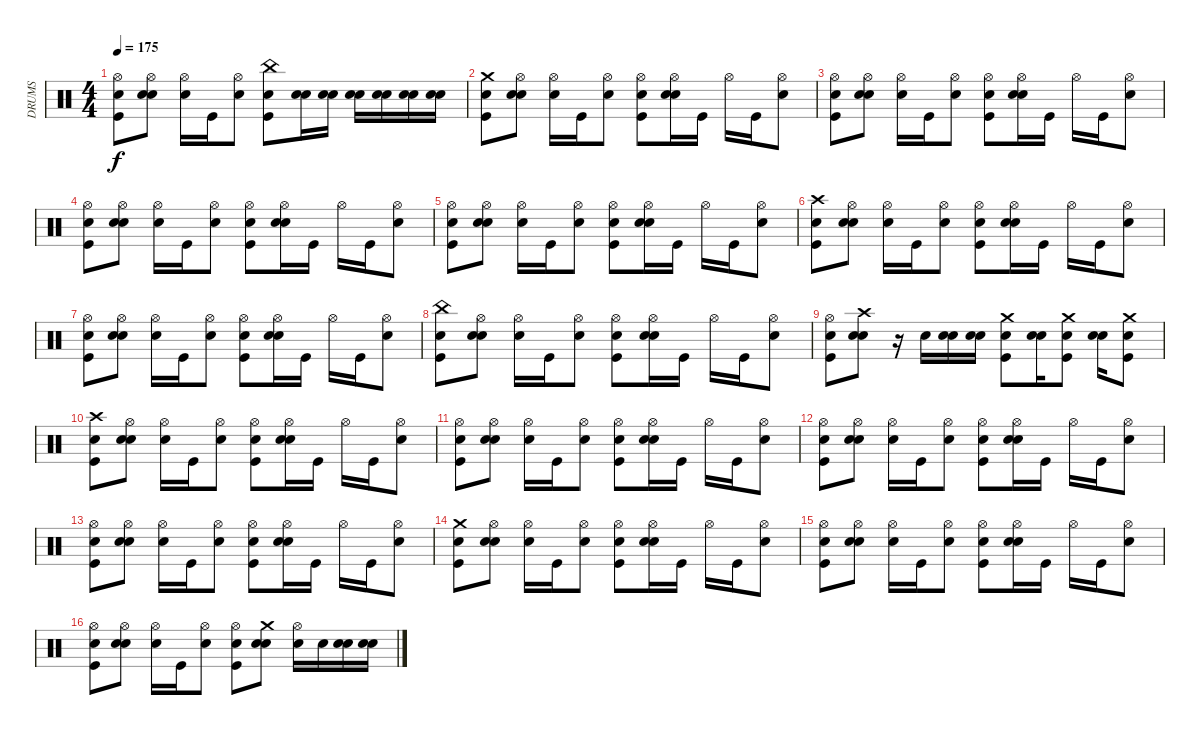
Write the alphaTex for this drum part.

\track ("DRUMS" "DRUMS") {instrument percussion}
\staff {score}
\articulation defaults
\ts (4 4)
\tempo 175
\clef neutral
\ks c
("Snare (hit)" "Kick (hit)" "Hi-Hat (open)").8{dy f} ("Snare (hit)" "Snare (hit) 2" "Hi-Hat (open)").8 ("Snare (hit)" "Hi-Hat (open)").16 "Kick (hit)".16 ("Snare (hit) 2" "Hi-Hat (open)").8 ("Snare (hit)" "Kick (hit)" "China (hit)").8 ("Snare (hit)" "Snare (hit) 2").16 ("Snare (hit)" "Snare (hit) 2").16 ("Snare (hit)" "Snare (hit) 2").16 ("Snare (hit)" "Snare (hit) 2").16 ("Snare (hit)" "Snare (hit) 2").16 ("Snare (hit)" "Snare (hit) 2").16 |
("Snare (hit)" "Crash medium (hit)" "Kick (hit)").8 ("Snare (hit)" "Hi-Hat (open)" "Snare (hit) 2").8 ("Snare (hit)" "Hi-Hat (open)").16 "Kick (hit)".16 ("Hi-Hat (open)" "Snare (hit) 2").8 ("Snare (hit)" "Hi-Hat (open)" "Kick (hit)").8 ("Snare (hit)" "Hi-Hat (open)" "Snare (hit) 2").16 "Kick (hit)".16 "Hi-Hat (open)".16 "Kick (hit)".16 ("Hi-Hat (open)" "Snare (hit) 2").8 |
("Snare (hit)" "Kick (hit)" "Hi-Hat (open)").8 ("Snare (hit)" "Snare (hit) 2" "Hi-Hat (open)").8 ("Snare (hit)" "Hi-Hat (open)").16 "Kick (hit)".16 ("Snare (hit) 2" "Hi-Hat (open)").8 ("Snare (hit)" "Kick (hit)" "Hi-Hat (open)").8 ("Snare (hit)" "Snare (hit) 2" "Hi-Hat (open)").16 "Kick (hit)".16 "Hi-Hat (open)".16 "Kick (hit)".16 ("Snare (hit) 2" "Hi-Hat (open)").8 |
("Snare (hit)" "Kick (hit)" "Hi-Hat (open)").8 ("Snare (hit)" "Snare (hit) 2" "Hi-Hat (open)").8 ("Snare (hit)" "Hi-Hat (open)").16 "Kick (hit)".16 ("Snare (hit) 2" "Hi-Hat (open)").8 ("Snare (hit)" "Kick (hit)" "Hi-Hat (open)").8 ("Snare (hit)" "Snare (hit) 2" "Hi-Hat (open)").16 "Kick (hit)".16 "Hi-Hat (open)".16 "Kick (hit)".16 ("Snare (hit) 2" "Hi-Hat (open)").8 |
("Snare (hit)" "Kick (hit)" "Hi-Hat (open)").8 ("Snare (hit)" "Snare (hit) 2" "Hi-Hat (open)").8 ("Snare (hit)" "Hi-Hat (open)").16 "Kick (hit)".16 ("Snare (hit) 2" "Hi-Hat (open)").8 ("Snare (hit)" "Kick (hit)" "Hi-Hat (open)").8 ("Snare (hit)" "Snare (hit) 2" "Hi-Hat (open)").16 "Kick (hit)".16 "Hi-Hat (open)".16 "Kick (hit)".16 ("Snare (hit) 2" "Hi-Hat (open)").8 |
("Snare (hit)" "Kick (hit)" "Crash high (hit)").8 ("Snare (hit)" "Snare (hit) 2" "Hi-Hat (open)").8 ("Snare (hit)" "Hi-Hat (open)").16 "Kick (hit)".16 ("Snare (hit) 2" "Hi-Hat (open)").8 ("Snare (hit)" "Kick (hit)" "Hi-Hat (open)").8 ("Snare (hit)" "Snare (hit) 2" "Hi-Hat (open)").16 "Kick (hit)".16 "Hi-Hat (open)".16 "Kick (hit)".16 ("Snare (hit) 2" "Hi-Hat (open)").8 |
("Snare (hit)" "Hi-Hat (open)" "Kick (hit)").8 ("Snare (hit)" "Hi-Hat (open)" "Snare (hit) 2").8 ("Snare (hit)" "Hi-Hat (open)").16 "Kick (hit)".16 ("Hi-Hat (open)" "Snare (hit) 2").8 ("Snare (hit)" "Hi-Hat (open)" "Kick (hit)").8 ("Snare (hit)" "Hi-Hat (open)" "Snare (hit) 2").16 "Kick (hit)".16 "Hi-Hat (open)".16 "Kick (hit)".16 ("Hi-Hat (open)" "Snare (hit) 2").8 |
("Snare (hit)" "China (hit)" "Kick (hit)").8 ("Snare (hit)" "Hi-Hat (open)" "Snare (hit) 2").8 ("Snare (hit)" "Hi-Hat (open)").16 "Kick (hit)".16 ("Hi-Hat (open)" "Snare (hit) 2").8 ("Snare (hit)" "Hi-Hat (open)" "Kick (hit)").8 ("Snare (hit)" "Hi-Hat (open)" "Snare (hit) 2").16 "Kick (hit)".16 "Hi-Hat (open)".16 "Kick (hit)".16 ("Hi-Hat (open)" "Snare (hit) 2").8 |
("Snare (hit)" "Kick (hit)" "Hi-Hat (open)").8 ("Snare (hit)" "Snare (hit) 2" "Crash high (hit)").8 r.16 "Snare (hit) 2".16 ("Snare (hit)" "Snare (hit) 2").16 ("Snare (hit)" "Snare (hit) 2").16 ("Snare (hit)" "Crash medium (hit)" "Kick (hit)").8 ("Snare (hit)" "Snare (hit) 2").16 ("Snare (hit)" "Crash medium (hit)" "Kick (hit)").8 ("Snare (hit)" "Snare (hit) 2").16 ("Snare (hit)" "Crash medium (hit)" "Kick (hit)").8 |
("Snare (hit)" "Kick (hit)" "Crash high (hit)").8 ("Snare (hit)" "Snare (hit) 2" "Hi-Hat (open)").8 ("Snare (hit)" "Hi-Hat (open)").16 "Kick (hit)".16 ("Snare (hit) 2" "Hi-Hat (open)").8 ("Snare (hit)" "Kick (hit)" "Hi-Hat (open)").8 ("Snare (hit)" "Snare (hit) 2" "Hi-Hat (open)").16 "Kick (hit)".16 "Hi-Hat (open)".16 "Kick (hit)".16 ("Snare (hit) 2" "Hi-Hat (open)").8 |
("Snare (hit)" "Kick (hit)" "Hi-Hat (open)").8 ("Snare (hit)" "Snare (hit) 2" "Hi-Hat (open)").8 ("Snare (hit)" "Hi-Hat (open)").16 "Kick (hit)".16 ("Snare (hit) 2" "Hi-Hat (open)").8 ("Snare (hit)" "Kick (hit)" "Hi-Hat (open)").8 ("Snare (hit)" "Snare (hit) 2" "Hi-Hat (open)").16 "Kick (hit)".16 "Hi-Hat (open)".16 "Kick (hit)".16 ("Snare (hit) 2" "Hi-Hat (open)").8 |
("Snare (hit)" "Kick (hit)" "Hi-Hat (open)").8 ("Snare (hit)" "Snare (hit) 2" "Hi-Hat (open)").8 ("Snare (hit)" "Hi-Hat (open)").16 "Kick (hit)".16 ("Snare (hit) 2" "Hi-Hat (open)").8 ("Snare (hit)" "Kick (hit)" "Hi-Hat (open)").8 ("Snare (hit)" "Snare (hit) 2" "Hi-Hat (open)").16 "Kick (hit)".16 "Hi-Hat (open)".16 "Kick (hit)".16 ("Snare (hit) 2" "Hi-Hat (open)").8 |
("Snare (hit)" "Kick (hit)" "Hi-Hat (open)").8 ("Snare (hit)" "Snare (hit) 2" "Hi-Hat (open)").8 ("Snare (hit)" "Hi-Hat (open)").16 "Kick (hit)".16 ("Snare (hit) 2" "Hi-Hat (open)").8 ("Snare (hit)" "Kick (hit)" "Hi-Hat (open)").8 ("Snare (hit)" "Snare (hit) 2" "Hi-Hat (open)").16 "Kick (hit)".16 "Hi-Hat (open)".16 "Kick (hit)".16 ("Snare (hit) 2" "Hi-Hat (open)").8 |
("Snare (hit)" "Crash medium (hit)" "Kick (hit)").8 ("Snare (hit)" "Hi-Hat (open)" "Snare (hit) 2").8 ("Snare (hit)" "Hi-Hat (open)").16 "Kick (hit)".16 ("Hi-Hat (open)" "Snare (hit) 2").8 ("Snare (hit)" "Hi-Hat (open)" "Kick (hit)").8 ("Snare (hit)" "Hi-Hat (open)" "Snare (hit) 2").16 "Kick (hit)".16 "Hi-Hat (open)".16 "Kick (hit)".16 ("Hi-Hat (open)" "Snare (hit) 2").8 |
("Snare (hit)" "Hi-Hat (open)" "Kick (hit)").8 ("Snare (hit)" "Hi-Hat (open)" "Snare (hit) 2").8 ("Snare (hit)" "Hi-Hat (open)").16 "Kick (hit)".16 ("Hi-Hat (open)" "Snare (hit) 2").8 ("Snare (hit)" "Hi-Hat (open)" "Kick (hit)").8 ("Snare (hit)" "Hi-Hat (open)" "Snare (hit) 2").16 "Kick (hit)".16 "Hi-Hat (open)".16 "Kick (hit)".16 ("Hi-Hat (open)" "Snare (hit) 2").8 |
("Snare (hit)" "Kick (hit)" "Hi-Hat (open)").8 ("Snare (hit)" "Snare (hit) 2" "Hi-Hat (open)").8 ("Snare (hit)" "Hi-Hat (open)").16 "Kick (hit)".16 ("Snare (hit) 2" "Hi-Hat (open)").8 ("Snare (hit)" "Kick (hit)" "Hi-Hat (open)").8 ("Snare (hit)" "Crash medium (hit)" "Snare (hit) 2").8 ("Snare (hit)" "Hi-Hat (open)").16 "Snare (hit) 2".16 ("Snare (hit)" "Snare (hit) 2").16 ("Snare (hit)" "Snare (hit) 2").16
